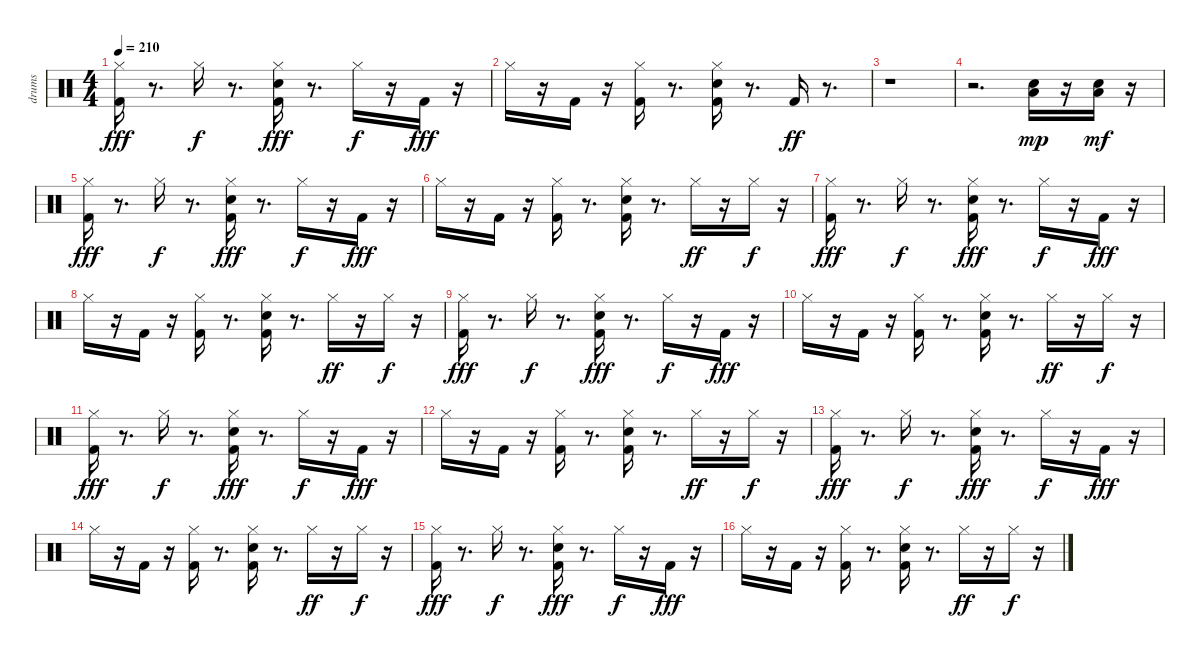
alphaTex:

\track ("drums" "drums") {instrument percussion}
\staff {score}
\articulation defaults
\ts (4 4)
\tempo 210
\clef neutral
\ks c
("Hi-Hat (closed)" "Kick (hit) 2").16{dy fff} r.8{d} "Hi-Hat (closed)".16{dy f} r.8{d} ("Electric Snare (hit)" "Hi-Hat (closed)" "Kick (hit) 2").16{dy fff} r.8{d} "Hi-Hat (closed)".16{dy f} r.16 "Kick (hit) 2".16{dy fff} r.16 |
"Hi-Hat (closed)".16 r.16 "Kick (hit) 2".16 r.16 ("Hi-Hat (closed)" "Kick (hit) 2").16 r.8{d} ("Electric Snare (hit)" "Hi-Hat (closed)" "Kick (hit) 2").16 r.8{d} "Kick (hit) 2".16{dy ff} r.8{d} |
r.1 |
r.2{d} ("Low Floor Tom (hit)" "Snare (hit) 2").16{dy mp} r.16 ("Low Floor Tom (hit)" "Snare (hit) 2").16{dy mf} r.16 |
("Hi-Hat (closed)" "Kick (hit) 2").16{dy fff} r.8{d} "Hi-Hat (closed)".16{dy f} r.8{d} ("Electric Snare (hit)" "Hi-Hat (closed)" "Kick (hit) 2").16{dy fff} r.8{d} "Hi-Hat (closed)".16{dy f} r.16 "Kick (hit) 2".16{dy fff} r.16 |
"Hi-Hat (closed)".16 r.16 "Kick (hit) 2".16 r.16 ("Hi-Hat (closed)" "Kick (hit) 2").16 r.8{d} ("Electric Snare (hit)" "Hi-Hat (closed)" "Kick (hit) 2").16 r.8{d} "Hi-Hat (closed)".16{dy ff} r.16 "Hi-Hat (closed)".16{dy f} r.16 |
("Hi-Hat (closed)" "Kick (hit) 2").16{dy fff} r.8{d} "Hi-Hat (closed)".16{dy f} r.8{d} ("Electric Snare (hit)" "Hi-Hat (closed)" "Kick (hit) 2").16{dy fff} r.8{d} "Hi-Hat (closed)".16{dy f} r.16 "Kick (hit) 2".16{dy fff} r.16 |
"Hi-Hat (closed)".16 r.16 "Kick (hit) 2".16 r.16 ("Hi-Hat (closed)" "Kick (hit) 2").16 r.8{d} ("Electric Snare (hit)" "Hi-Hat (closed)" "Kick (hit) 2").16 r.8{d} "Hi-Hat (closed)".16{dy ff} r.16 "Hi-Hat (closed)".16{dy f} r.16 |
("Hi-Hat (closed)" "Kick (hit) 2").16{dy fff} r.8{d} "Hi-Hat (closed)".16{dy f} r.8{d} ("Electric Snare (hit)" "Hi-Hat (closed)" "Kick (hit) 2").16{dy fff} r.8{d} "Hi-Hat (closed)".16{dy f} r.16 "Kick (hit) 2".16{dy fff} r.16 |
"Hi-Hat (closed)".16 r.16 "Kick (hit) 2".16 r.16 ("Hi-Hat (closed)" "Kick (hit) 2").16 r.8{d} ("Electric Snare (hit)" "Hi-Hat (closed)" "Kick (hit) 2").16 r.8{d} "Hi-Hat (closed)".16{dy ff} r.16 "Hi-Hat (closed)".16{dy f} r.16 |
("Hi-Hat (closed)" "Kick (hit) 2").16{dy fff} r.8{d} "Hi-Hat (closed)".16{dy f} r.8{d} ("Electric Snare (hit)" "Hi-Hat (closed)" "Kick (hit) 2").16{dy fff} r.8{d} "Hi-Hat (closed)".16{dy f} r.16 "Kick (hit) 2".16{dy fff} r.16 |
"Hi-Hat (closed)".16 r.16 "Kick (hit) 2".16 r.16 ("Hi-Hat (closed)" "Kick (hit) 2").16 r.8{d} ("Electric Snare (hit)" "Hi-Hat (closed)" "Kick (hit) 2").16 r.8{d} "Hi-Hat (closed)".16{dy ff} r.16 "Hi-Hat (closed)".16{dy f} r.16 |
("Hi-Hat (closed)" "Kick (hit) 2").16{dy fff} r.8{d} "Hi-Hat (closed)".16{dy f} r.8{d} ("Electric Snare (hit)" "Hi-Hat (closed)" "Kick (hit) 2").16{dy fff} r.8{d} "Hi-Hat (closed)".16{dy f} r.16 "Kick (hit) 2".16{dy fff} r.16 |
"Hi-Hat (closed)".16 r.16 "Kick (hit) 2".16 r.16 ("Hi-Hat (closed)" "Kick (hit) 2").16 r.8{d} ("Electric Snare (hit)" "Hi-Hat (closed)" "Kick (hit) 2").16 r.8{d} "Hi-Hat (closed)".16{dy ff} r.16 "Hi-Hat (closed)".16{dy f} r.16 |
("Hi-Hat (closed)" "Kick (hit) 2").16{dy fff} r.8{d} "Hi-Hat (closed)".16{dy f} r.8{d} ("Electric Snare (hit)" "Hi-Hat (closed)" "Kick (hit) 2").16{dy fff} r.8{d} "Hi-Hat (closed)".16{dy f} r.16 "Kick (hit) 2".16{dy fff} r.16 |
"Hi-Hat (closed)".16 r.16 "Kick (hit) 2".16 r.16 ("Hi-Hat (closed)" "Kick (hit) 2").16 r.8{d} ("Electric Snare (hit)" "Hi-Hat (closed)" "Kick (hit) 2").16 r.8{d} "Hi-Hat (closed)".16{dy ff} r.16 "Hi-Hat (closed)".16{dy f} r.16
